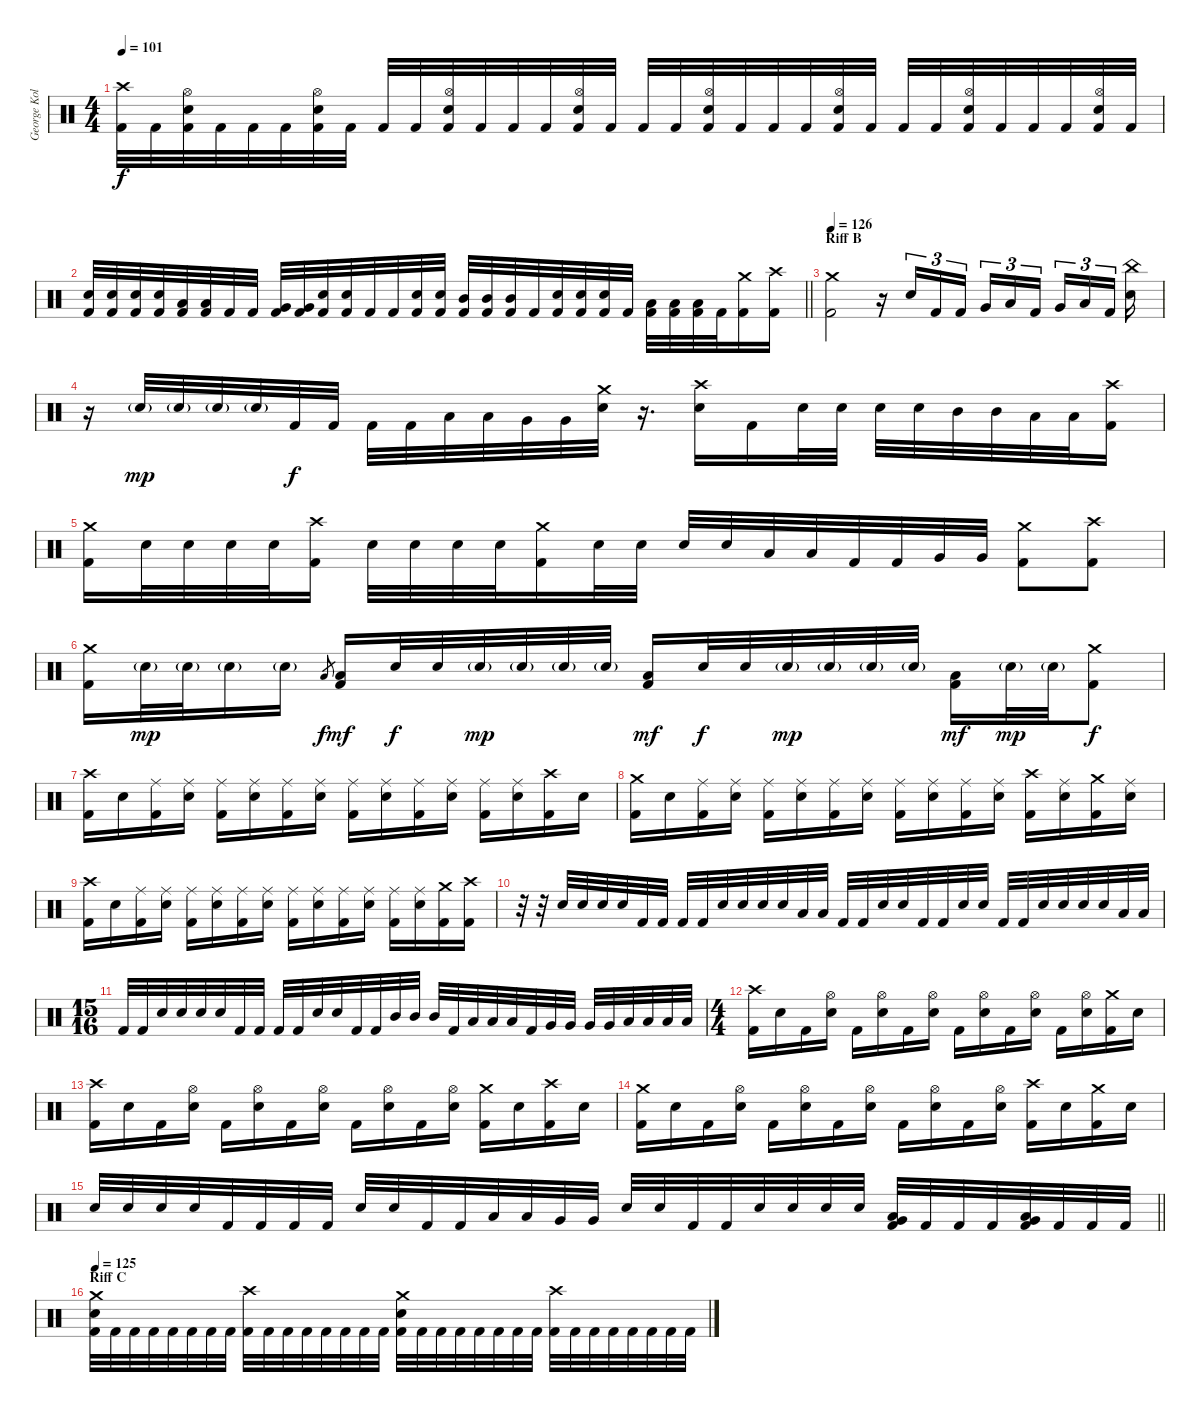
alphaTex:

\track ("George Kollias" "George Kol") {instrument percussion}
\staff {score}
\articulation defaults
\ts (4 4)
\tempo 101
\clef neutral
\ks c
("Crash high (hit)" "Kick (hit) 2").32{dy f} "Kick (hit) 2".32 ("Hi-Hat (open)" "Electric Snare (hit)" "Kick (hit) 2").32 "Kick (hit) 2".32 "Kick (hit) 2".32 "Kick (hit) 2".32 ("Hi-Hat (open)" "Electric Snare (hit)" "Kick (hit) 2").32 "Kick (hit) 2".32 "Kick (hit) 2".32 "Kick (hit) 2".32 ("Hi-Hat (open)" "Electric Snare (hit)" "Kick (hit) 2").32 "Kick (hit) 2".32 "Kick (hit) 2".32 "Kick (hit) 2".32 ("Hi-Hat (open)" "Electric Snare (hit)" "Kick (hit) 2").32 "Kick (hit) 2".32 "Kick (hit) 2".32 "Kick (hit) 2".32 ("Hi-Hat (open)" "Electric Snare (hit)" "Kick (hit) 2").32 "Kick (hit) 2".32 "Kick (hit) 2".32 "Kick (hit) 2".32 ("Hi-Hat (open)" "Electric Snare (hit)" "Kick (hit) 2").32 "Kick (hit) 2".32 "Kick (hit) 2".32 "Kick (hit) 2".32 ("Hi-Hat (open)" "Electric Snare (hit)" "Kick (hit) 2").32 "Kick (hit) 2".32 "Kick (hit) 2".32 "Kick (hit) 2".32 ("Hi-Hat (open)" "Electric Snare (hit)" "Kick (hit) 2").32 "Kick (hit) 2".32 |
\barLineRight lightlight
("Electric Snare (hit)" "Kick (hit) 2").32 ("Electric Snare (hit)" "Kick (hit) 2").32 ("Electric Snare (hit)" "Kick (hit) 2").32 ("Electric Snare (hit)" "Kick (hit) 2").32 ("Low Tom (hit)" "Kick (hit) 2").32 ("Low Tom (hit)" "Kick (hit) 2").32 "Kick (hit) 2".32 "Kick (hit) 2".32 ("Very Low Tom (hit)" "Kick (hit) 2").32 ("Very Low Tom (hit)" "Kick (hit) 2").32 ("Electric Snare (hit)" "Kick (hit) 2").32 ("Electric Snare (hit)" "Kick (hit) 2").32 "Kick (hit) 2".32 "Kick (hit) 2".32 ("Electric Snare (hit)" "Kick (hit) 2").32 ("Electric Snare (hit)" "Kick (hit) 2").32 ("Mid Tom (hit)" "Kick (hit) 2").32 ("Mid Tom (hit)" "Kick (hit) 2").32 ("Mid Tom (hit)" "Kick (hit) 2").32 "Kick (hit) 2".32 ("Electric Snare (hit)" "Kick (hit) 2").32 ("Electric Snare (hit)" "Kick (hit) 2").32 ("Electric Snare (hit)" "Kick (hit) 2").32 "Kick (hit) 2".32 ("Low Tom (hit)" "Kick (hit) 2").32 ("Low Tom (hit)" "Kick (hit) 2").32 ("Low Tom (hit)" "Kick (hit) 2").32 "Kick (hit) 2".32 ("Crash medium (hit)" "Kick (hit) 2").16 ("Crash high (hit)" "Kick (hit) 2").16 |
\section ("" "Riff B")
\tempo 126
("Crash medium (hit)" "Kick (hit) 2").2 r.16 "Electric Snare (hit)".16{tu (3 2)} "Kick (hit) 2".16{tu (3 2)} "Kick (hit) 2".16{tu (3 2) beam splitsecondary} "Very Low Tom (hit)".16{tu (3 2)} "Low Floor Tom (hit)".16{tu (3 2)} "Kick (hit) 2".16{tu (3 2) beam splitsecondary} "Very Low Tom (hit)".16{tu (3 2)} "Low Floor Tom (hit)".16{tu (3 2)} "Kick (hit) 2".16{tu (3 2) beam splitsecondary} ("China (hit)" "Electric Snare (hit)").16 |
r.16 "Electric Snare (hit)"{g}.32{dy mp} "Electric Snare (hit)"{g}.32 "Electric Snare (hit)"{g}.32 "Electric Snare (hit)"{g}.32 "Kick (hit) 2".32{dy f} "Kick (hit) 2".32 "Kick (hit) 2".32 "Kick (hit) 2".32 "Low Tom (hit)".32 "Low Tom (hit)".32 "Very Low Tom (hit)".32 "Very Low Tom (hit)".32 ("Crash medium (hit)" "Electric Snare (hit)").32 r.16{d} ("Crash high (hit)" "Electric Snare (hit)").16 "Kick (hit) 2".16 "Electric Snare (hit)".32 "Electric Snare (hit)".32 "Electric Snare (hit)".32 "Electric Snare (hit)".32 "Mid Tom (hit)".32 "Mid Tom (hit)".32 "Low Tom (hit)".32 "Low Tom (hit)".32 ("Crash high (hit)" "Kick (hit) 2").16 |
("Crash medium (hit)" "Kick (hit) 2").16 "Electric Snare (hit)".32 "Electric Snare (hit)".32 "Electric Snare (hit)".32 "Electric Snare (hit)".32 ("Crash high (hit)" "Kick (hit) 2").16 "Electric Snare (hit)".32 "Electric Snare (hit)".32 "Electric Snare (hit)".32 "Electric Snare (hit)".32 ("Crash medium (hit)" "Kick (hit) 2").16 "Electric Snare (hit)".32 "Electric Snare (hit)".32 "Electric Snare (hit)".32 "Electric Snare (hit)".32 "Low Tom (hit)".32 "Low Tom (hit)".32 "Kick (hit) 2".32 "Kick (hit) 2".32 "Very Low Tom (hit)".32 "Very Low Tom (hit)".32 ("Crash medium (hit)" "Kick (hit) 2").8 ("Crash high (hit)" "Kick (hit) 2").8 |
("Crash medium (hit)" "Kick (hit) 2").16 "Electric Snare (hit)"{g}.32{dy mp} "Electric Snare (hit)"{g}.32 "Electric Snare (hit)"{g}.16 "Electric Snare (hit)"{g}.16 "Low Floor Tom (hit)".8{gr dy f} ("Low Floor Tom (hit)" "Kick (hit) 2").16{dy mf} "Electric Snare (hit)".32{dy f} "Electric Snare (hit)".32 "Electric Snare (hit)"{g}.32{dy mp} "Electric Snare (hit)"{g}.32 "Electric Snare (hit)"{g}.32 "Electric Snare (hit)"{g}.32 ("Low Floor Tom (hit)" "Kick (hit) 2").16{dy mf} "Electric Snare (hit)".32{dy f} "Electric Snare (hit)".32 "Electric Snare (hit)"{g}.32{dy mp} "Electric Snare (hit)"{g}.32 "Electric Snare (hit)"{g}.32 "Electric Snare (hit)"{g}.32 ("Low Floor Tom (hit)" "Kick (hit) 2").16{dy mf} "Electric Snare (hit)"{g}.32{dy mp} "Electric Snare (hit)"{g}.32 ("Crash medium (hit)" "Kick (hit) 2").8{dy f} |
("Crash high (hit)" "Kick (hit) 2").16 "Electric Snare (hit)".16 ("Ride (middle)" "Kick (hit) 2").16 ("Ride (middle)" "Electric Snare (hit)").16 ("Ride (middle)" "Kick (hit) 2").16 ("Ride (middle)" "Electric Snare (hit)").16 ("Ride (middle)" "Kick (hit) 2").16 ("Ride (middle)" "Electric Snare (hit)").16 ("Ride (middle)" "Kick (hit) 2").16 ("Ride (middle)" "Electric Snare (hit)").16 ("Ride (middle)" "Kick (hit) 2").16 ("Ride (middle)" "Electric Snare (hit)").16 ("Ride (middle)" "Kick (hit) 2").16 ("Ride (middle)" "Electric Snare (hit)").16 ("Crash high (hit)" "Kick (hit) 2").16 "Electric Snare (hit)".16 |
("Crash medium (hit)" "Kick (hit) 2").16 "Electric Snare (hit)".16 ("Ride (middle)" "Kick (hit) 2").16 ("Ride (middle)" "Electric Snare (hit)").16 ("Ride (middle)" "Kick (hit) 2").16 ("Ride (middle)" "Electric Snare (hit)").16 ("Ride (middle)" "Kick (hit) 2").16 ("Ride (middle)" "Electric Snare (hit)").16 ("Ride (middle)" "Kick (hit) 2").16 ("Ride (middle)" "Electric Snare (hit)").16 ("Ride (middle)" "Kick (hit) 2").16 ("Ride (middle)" "Electric Snare (hit)").16 ("Crash high (hit)" "Kick (hit) 2").16 ("Ride (middle)" "Electric Snare (hit)").16 ("Crash medium (hit)" "Kick (hit) 2").16 ("Ride (middle)" "Electric Snare (hit)").16 |
("Crash high (hit)" "Kick (hit) 2").16 "Electric Snare (hit)".16 ("Ride (middle)" "Kick (hit) 2").16 ("Ride (middle)" "Electric Snare (hit)").16 ("Ride (middle)" "Kick (hit) 2").16 ("Ride (middle)" "Electric Snare (hit)").16 ("Ride (middle)" "Kick (hit) 2").16 ("Ride (middle)" "Electric Snare (hit)").16 ("Ride (middle)" "Kick (hit) 2").16 ("Ride (middle)" "Electric Snare (hit)").16 ("Ride (middle)" "Kick (hit) 2").16 ("Ride (middle)" "Electric Snare (hit)").16 ("Ride (middle)" "Kick (hit) 2").16 ("Ride (middle)" "Electric Snare (hit)").16 ("Crash medium (hit)" "Kick (hit) 2").16 ("Crash high (hit)" "Kick (hit) 2").16 |
r.32 r.32 "Electric Snare (hit)".32 "Electric Snare (hit)".32 "Electric Snare (hit)".32 "Electric Snare (hit)".32 "Kick (hit) 2".32 "Kick (hit) 2".32 "Kick (hit) 2".32 "Kick (hit) 2".32 "Electric Snare (hit)".32 "Electric Snare (hit)".32 "Electric Snare (hit)".32 "Electric Snare (hit)".32 "Low Tom (hit)".32 "Low Tom (hit)".32 "Kick (hit) 2".32 "Kick (hit) 2".32 "Electric Snare (hit)".32 "Electric Snare (hit)".32 "Kick (hit) 2".32 "Kick (hit) 2".32 "Electric Snare (hit)".32 "Electric Snare (hit)".32 "Kick (hit) 2".32 "Kick (hit) 2".32 "Electric Snare (hit)".32 "Electric Snare (hit)".32 "Electric Snare (hit)".32 "Electric Snare (hit)".32 "Low Floor Tom (hit)".32 "Low Floor Tom (hit)".32 |
\ts (15 16)
"Kick (hit) 2".32 "Kick (hit) 2".32 "Electric Snare (hit)".32 "Electric Snare (hit)".32 "Electric Snare (hit)".32 "Electric Snare (hit)".32 "Kick (hit) 2".32 "Kick (hit) 2".32 "Kick (hit) 2".32 "Kick (hit) 2".32 "Electric Snare (hit)".32 "Electric Snare (hit)".32 "Kick (hit) 2".32 "Kick (hit) 2".32 "Mid Tom (hit)".32 "Mid Tom (hit)".32 "Mid Tom (hit)".32 "Kick (hit) 2".32 "Low Tom (hit)".32 "Low Tom (hit)".32 "Low Tom (hit)".32 "Kick (hit) 2".32 "Very Low Tom (hit)".32 "Very Low Tom (hit)".32 "Very Low Tom (hit)".32 "Very Low Tom (hit)".32 "Low Floor Tom (hit)".32 "Low Floor Tom (hit)".32 "Low Floor Tom (hit)".32 "Low Floor Tom (hit)".32 |
\ts (4 4)
("Crash high (hit)" "Kick (hit) 2").16 "Electric Snare (hit)".16 "Kick (hit) 2".16 ("Hi-Hat (open)" "Electric Snare (hit)").16 "Kick (hit) 2".16 ("Hi-Hat (open)" "Electric Snare (hit)").16 "Kick (hit) 2".16 ("Hi-Hat (open)" "Electric Snare (hit)").16 "Kick (hit) 2".16 ("Hi-Hat (open)" "Electric Snare (hit)").16 "Kick (hit) 2".16 ("Hi-Hat (open)" "Electric Snare (hit)").16 "Kick (hit) 2".16 ("Hi-Hat (open)" "Electric Snare (hit)").16 ("Crash medium (hit)" "Kick (hit) 2").16 "Electric Snare (hit)".16 |
("Crash high (hit)" "Kick (hit) 2").16 "Electric Snare (hit)".16 "Kick (hit) 2".16 ("Hi-Hat (open)" "Electric Snare (hit)").16 "Kick (hit) 2".16 ("Hi-Hat (open)" "Electric Snare (hit)").16 "Kick (hit) 2".16 ("Hi-Hat (open)" "Electric Snare (hit)").16 "Kick (hit) 2".16 ("Hi-Hat (open)" "Electric Snare (hit)").16 "Kick (hit) 2".16 ("Hi-Hat (open)" "Electric Snare (hit)").16 ("Crash medium (hit)" "Kick (hit) 2").16 "Electric Snare (hit)".16 ("Crash high (hit)" "Kick (hit) 2").16 "Electric Snare (hit)".16 |
("Crash medium (hit)" "Kick (hit) 2").16 "Electric Snare (hit)".16 "Kick (hit) 2".16 ("Hi-Hat (open)" "Electric Snare (hit)").16 "Kick (hit) 2".16 ("Hi-Hat (open)" "Electric Snare (hit)").16 "Kick (hit) 2".16 ("Hi-Hat (open)" "Electric Snare (hit)").16 "Kick (hit) 2".16 ("Hi-Hat (open)" "Electric Snare (hit)").16 "Kick (hit) 2".16 ("Hi-Hat (open)" "Electric Snare (hit)").16 ("Crash high (hit)" "Kick (hit) 2").16 "Electric Snare (hit)".16 ("Crash medium (hit)" "Kick (hit) 2").16 "Electric Snare (hit)".16 |
\barLineRight lightlight "Electric Snare (hit)".32 "Electric Snare (hit)".32 "Electric Snare (hit)".32 "Electric Snare (hit)".32 "Kick (hit) 2".32 "Kick (hit) 2".32 "Kick (hit) 2".32 "Kick (hit) 2".32 "Electric Snare (hit)".32 "Electric Snare (hit)".32 "Kick (hit) 2".32 "Kick (hit) 2".32 "Low Tom (hit)".32 "Low Tom (hit)".32 "Very Low Tom (hit)".32 "Very Low Tom (hit)".32 "Electric Snare (hit)".32 "Electric Snare (hit)".32 "Kick (hit) 2".32 "Kick (hit) 2".32 "Electric Snare (hit)".32 "Electric Snare (hit)".32 "Electric Snare (hit)".32 "Electric Snare (hit)".32
("Low Tom (hit)" "Very Low Tom (hit)" "Kick (hit) 2").32 "Kick (hit) 2".32 "Kick (hit) 2".32 "Kick (hit) 2".32 ("Very Low Tom (hit)" "Low Floor Tom (hit)" "Kick (hit) 2").32 "Kick (hit) 2".32 "Kick (hit) 2".32 "Kick (hit) 2".32 |
\section ("" "Riff C")
\tempo 125
("Crash medium (hit)" "Electric Snare (hit)" "Kick (hit) 2").32 "Kick (hit) 2".32 "Kick (hit) 2".32 "Kick (hit) 2".32 "Kick (hit) 2".32 "Kick (hit) 2".32 "Kick (hit) 2".32 "Kick (hit) 2".32 ("Crash high (hit)" "Kick (hit) 2").32 "Kick (hit) 2".32 "Kick (hit) 2".32 "Kick (hit) 2".32 "Kick (hit) 2".32 "Kick (hit) 2".32 "Kick (hit) 2".32 "Kick (hit) 2".32 ("Crash medium (hit)" "Electric Snare (hit)" "Kick (hit) 2").32 "Kick (hit) 2".32 "Kick (hit) 2".32 "Kick (hit) 2".32 "Kick (hit) 2".32 "Kick (hit) 2".32 "Kick (hit) 2".32 "Kick (hit) 2".32 ("Crash high (hit)" "Kick (hit) 2").32 "Kick (hit) 2".32 "Kick (hit) 2".32 "Kick (hit) 2".32 "Kick (hit) 2".32 "Kick (hit) 2".32 "Kick (hit) 2".32 "Kick (hit) 2".32
